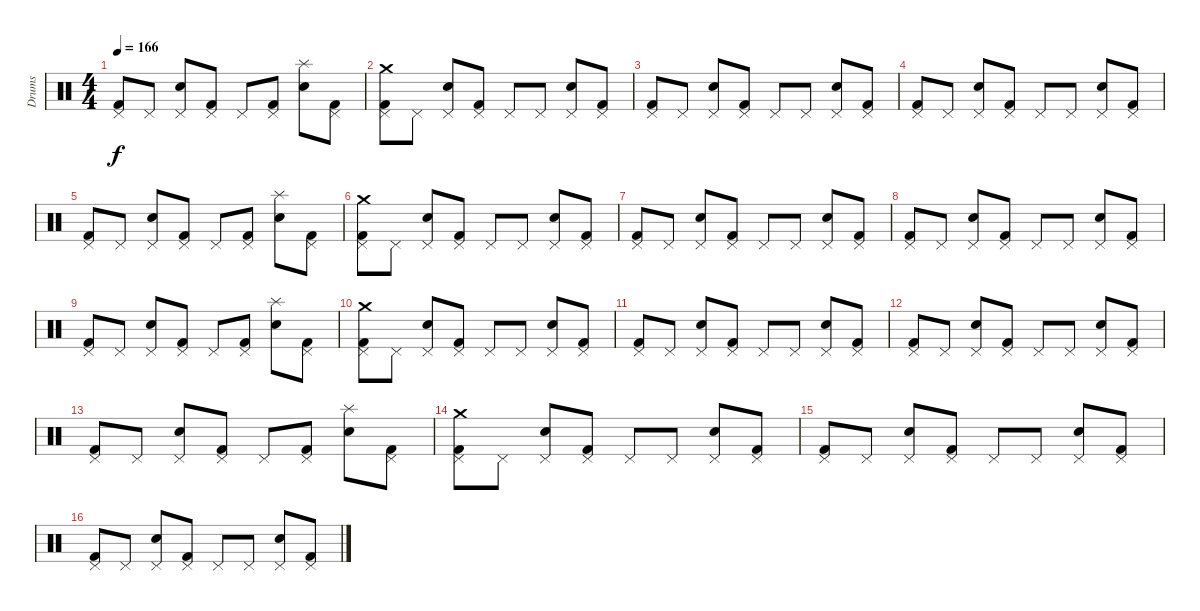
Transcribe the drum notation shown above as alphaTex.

\track ("Drums" "Drums") {instrument percussion}
\staff {score}
\articulation defaults
\ts (4 4)
\tempo 166
\clef neutral
\ks c
("Pedal Hi-Hat (hit)" "Kick (hit) 2").8{dy f} "Pedal Hi-Hat (hit)".8 ("Pedal Hi-Hat (hit)" "Electric Snare (hit)").8 ("Pedal Hi-Hat (hit)" "Kick (hit) 2").8 "Pedal Hi-Hat (hit)".8 ("Pedal Hi-Hat (hit)" "Kick (hit) 2").8 ("Splash (hit)" "Electric Snare (hit)").8 ("Pedal Hi-Hat (hit)" "Kick (hit) 2").8 |
("Crash medium (hit)" "Pedal Hi-Hat (hit)" "Kick (hit) 2").8 "Pedal Hi-Hat (hit)".8 ("Pedal Hi-Hat (hit)" "Electric Snare (hit)").8 ("Pedal Hi-Hat (hit)" "Kick (hit) 2").8 "Pedal Hi-Hat (hit)".8 "Pedal Hi-Hat (hit)".8 ("Pedal Hi-Hat (hit)" "Electric Snare (hit)").8 ("Pedal Hi-Hat (hit)" "Kick (hit) 2").8 |
("Pedal Hi-Hat (hit)" "Kick (hit) 2").8 "Pedal Hi-Hat (hit)".8 ("Pedal Hi-Hat (hit)" "Electric Snare (hit)").8 ("Pedal Hi-Hat (hit)" "Kick (hit) 2").8 "Pedal Hi-Hat (hit)".8 "Pedal Hi-Hat (hit)".8 ("Pedal Hi-Hat (hit)" "Electric Snare (hit)").8 ("Pedal Hi-Hat (hit)" "Kick (hit) 2").8 |
("Pedal Hi-Hat (hit)" "Kick (hit) 2").8 "Pedal Hi-Hat (hit)".8 ("Pedal Hi-Hat (hit)" "Electric Snare (hit)").8 ("Pedal Hi-Hat (hit)" "Kick (hit) 2").8 "Pedal Hi-Hat (hit)".8 "Pedal Hi-Hat (hit)".8 ("Pedal Hi-Hat (hit)" "Electric Snare (hit)").8 ("Pedal Hi-Hat (hit)" "Kick (hit) 2").8 |
("Pedal Hi-Hat (hit)" "Kick (hit) 2").8 "Pedal Hi-Hat (hit)".8 ("Pedal Hi-Hat (hit)" "Electric Snare (hit)").8 ("Pedal Hi-Hat (hit)" "Kick (hit) 2").8 "Pedal Hi-Hat (hit)".8 ("Pedal Hi-Hat (hit)" "Kick (hit) 2").8 ("Splash (hit)" "Electric Snare (hit)").8 ("Pedal Hi-Hat (hit)" "Kick (hit) 2").8 |
("Crash medium (hit)" "Pedal Hi-Hat (hit)" "Kick (hit) 2").8 "Pedal Hi-Hat (hit)".8 ("Pedal Hi-Hat (hit)" "Electric Snare (hit)").8 ("Pedal Hi-Hat (hit)" "Kick (hit) 2").8 "Pedal Hi-Hat (hit)".8 "Pedal Hi-Hat (hit)".8 ("Pedal Hi-Hat (hit)" "Electric Snare (hit)").8 ("Pedal Hi-Hat (hit)" "Kick (hit) 2").8 |
("Pedal Hi-Hat (hit)" "Kick (hit) 2").8 "Pedal Hi-Hat (hit)".8 ("Pedal Hi-Hat (hit)" "Electric Snare (hit)").8 ("Pedal Hi-Hat (hit)" "Kick (hit) 2").8 "Pedal Hi-Hat (hit)".8 "Pedal Hi-Hat (hit)".8 ("Pedal Hi-Hat (hit)" "Electric Snare (hit)").8 ("Pedal Hi-Hat (hit)" "Kick (hit) 2").8 |
("Pedal Hi-Hat (hit)" "Kick (hit) 2").8 "Pedal Hi-Hat (hit)".8 ("Pedal Hi-Hat (hit)" "Electric Snare (hit)").8 ("Pedal Hi-Hat (hit)" "Kick (hit) 2").8 "Pedal Hi-Hat (hit)".8 "Pedal Hi-Hat (hit)".8 ("Pedal Hi-Hat (hit)" "Electric Snare (hit)").8 ("Pedal Hi-Hat (hit)" "Kick (hit) 2").8 |
("Pedal Hi-Hat (hit)" "Kick (hit) 2").8 "Pedal Hi-Hat (hit)".8 ("Pedal Hi-Hat (hit)" "Electric Snare (hit)").8 ("Pedal Hi-Hat (hit)" "Kick (hit) 2").8 "Pedal Hi-Hat (hit)".8 ("Pedal Hi-Hat (hit)" "Kick (hit) 2").8 ("Splash (hit)" "Electric Snare (hit)").8 ("Pedal Hi-Hat (hit)" "Kick (hit) 2").8 |
("Crash medium (hit)" "Pedal Hi-Hat (hit)" "Kick (hit) 2").8 "Pedal Hi-Hat (hit)".8 ("Pedal Hi-Hat (hit)" "Electric Snare (hit)").8 ("Pedal Hi-Hat (hit)" "Kick (hit) 2").8 "Pedal Hi-Hat (hit)".8 "Pedal Hi-Hat (hit)".8 ("Pedal Hi-Hat (hit)" "Electric Snare (hit)").8 ("Pedal Hi-Hat (hit)" "Kick (hit) 2").8 |
("Pedal Hi-Hat (hit)" "Kick (hit) 2").8 "Pedal Hi-Hat (hit)".8 ("Pedal Hi-Hat (hit)" "Electric Snare (hit)").8 ("Pedal Hi-Hat (hit)" "Kick (hit) 2").8 "Pedal Hi-Hat (hit)".8 "Pedal Hi-Hat (hit)".8 ("Pedal Hi-Hat (hit)" "Electric Snare (hit)").8 ("Pedal Hi-Hat (hit)" "Kick (hit) 2").8 |
("Pedal Hi-Hat (hit)" "Kick (hit) 2").8 "Pedal Hi-Hat (hit)".8 ("Pedal Hi-Hat (hit)" "Electric Snare (hit)").8 ("Pedal Hi-Hat (hit)" "Kick (hit) 2").8 "Pedal Hi-Hat (hit)".8 "Pedal Hi-Hat (hit)".8 ("Pedal Hi-Hat (hit)" "Electric Snare (hit)").8 ("Pedal Hi-Hat (hit)" "Kick (hit) 2").8 |
("Pedal Hi-Hat (hit)" "Kick (hit) 2").8 "Pedal Hi-Hat (hit)".8 ("Pedal Hi-Hat (hit)" "Electric Snare (hit)").8 ("Pedal Hi-Hat (hit)" "Kick (hit) 2").8 "Pedal Hi-Hat (hit)".8 ("Pedal Hi-Hat (hit)" "Kick (hit) 2").8 ("Splash (hit)" "Electric Snare (hit)").8 ("Pedal Hi-Hat (hit)" "Kick (hit) 2").8 |
("Crash medium (hit)" "Pedal Hi-Hat (hit)" "Kick (hit) 2").8 "Pedal Hi-Hat (hit)".8 ("Pedal Hi-Hat (hit)" "Electric Snare (hit)").8 ("Pedal Hi-Hat (hit)" "Kick (hit) 2").8 "Pedal Hi-Hat (hit)".8 "Pedal Hi-Hat (hit)".8 ("Pedal Hi-Hat (hit)" "Electric Snare (hit)").8 ("Pedal Hi-Hat (hit)" "Kick (hit) 2").8 |
("Pedal Hi-Hat (hit)" "Kick (hit) 2").8 "Pedal Hi-Hat (hit)".8 ("Pedal Hi-Hat (hit)" "Electric Snare (hit)").8 ("Pedal Hi-Hat (hit)" "Kick (hit) 2").8 "Pedal Hi-Hat (hit)".8 "Pedal Hi-Hat (hit)".8 ("Pedal Hi-Hat (hit)" "Electric Snare (hit)").8 ("Pedal Hi-Hat (hit)" "Kick (hit) 2").8 |
("Pedal Hi-Hat (hit)" "Kick (hit) 2").8 "Pedal Hi-Hat (hit)".8 ("Pedal Hi-Hat (hit)" "Electric Snare (hit)").8 ("Pedal Hi-Hat (hit)" "Kick (hit) 2").8 "Pedal Hi-Hat (hit)".8 "Pedal Hi-Hat (hit)".8 ("Pedal Hi-Hat (hit)" "Electric Snare (hit)").8 ("Pedal Hi-Hat (hit)" "Kick (hit) 2").8
